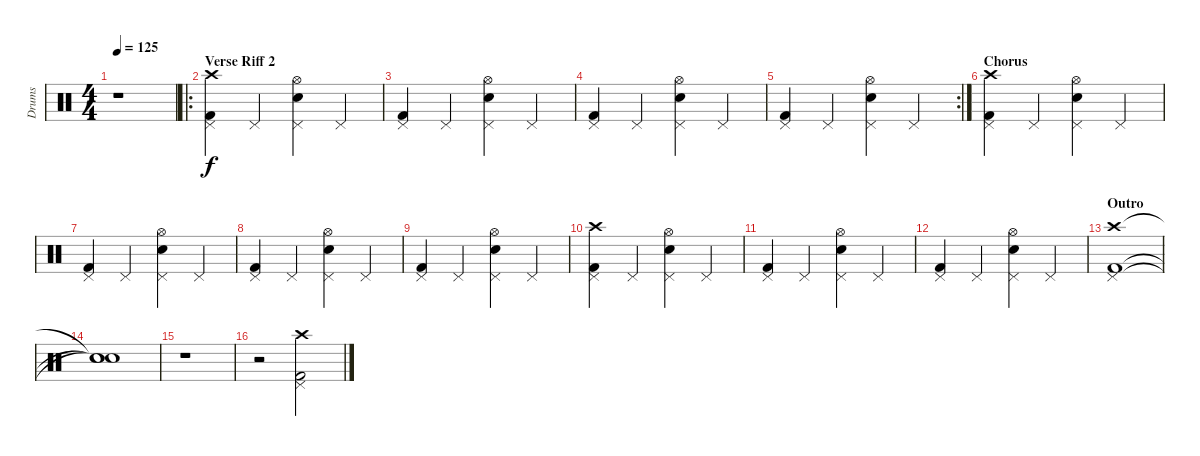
\track ("Drums" "Drums") {instrument percussion}
\staff {score}
\articulation defaults
\ts (4 4)
\tempo 125
\clef neutral
\ks c
r.1{dy f} |
\ro
\section ("" "Verse Riff 2")
("Kick (hit) 2" "Pedal Hi-Hat (hit)" "Crash high (hit)").4 "Pedal Hi-Hat (hit)".4 ("Snare (hit) 2" "Pedal Hi-Hat (hit)" "Hi-Hat (open)").4 "Pedal Hi-Hat (hit)".4 |
("Kick (hit) 2" "Pedal Hi-Hat (hit)").4 "Pedal Hi-Hat (hit)".4 ("Snare (hit) 2" "Pedal Hi-Hat (hit)" "Hi-Hat (open)").4 "Pedal Hi-Hat (hit)".4 |
("Kick (hit) 2" "Pedal Hi-Hat (hit)").4 "Pedal Hi-Hat (hit)".4 ("Snare (hit) 2" "Pedal Hi-Hat (hit)" "Hi-Hat (open)").4 "Pedal Hi-Hat (hit)".4 |
\rc 2
("Kick (hit) 2" "Pedal Hi-Hat (hit)").4 "Pedal Hi-Hat (hit)".4 ("Snare (hit) 2" "Pedal Hi-Hat (hit)" "Hi-Hat (open)").4 "Pedal Hi-Hat (hit)".4 |
\section ("" "Chorus")
("Kick (hit) 2" "Pedal Hi-Hat (hit)" "Crash high (hit)").4 "Pedal Hi-Hat (hit)".4 ("Snare (hit) 2" "Pedal Hi-Hat (hit)" "Hi-Hat (open)").4 "Pedal Hi-Hat (hit)".4 |
("Kick (hit) 2" "Pedal Hi-Hat (hit)").4 "Pedal Hi-Hat (hit)".4 ("Snare (hit) 2" "Pedal Hi-Hat (hit)" "Hi-Hat (open)").4 "Pedal Hi-Hat (hit)".4 |
("Kick (hit) 2" "Pedal Hi-Hat (hit)").4 "Pedal Hi-Hat (hit)".4 ("Snare (hit) 2" "Pedal Hi-Hat (hit)" "Hi-Hat (open)").4 "Pedal Hi-Hat (hit)".4 |
("Kick (hit) 2" "Pedal Hi-Hat (hit)").4 "Pedal Hi-Hat (hit)".4 ("Snare (hit) 2" "Pedal Hi-Hat (hit)" "Hi-Hat (open)").4 "Pedal Hi-Hat (hit)".4 |
("Kick (hit) 2" "Pedal Hi-Hat (hit)" "Crash high (hit)").4 "Pedal Hi-Hat (hit)".4 ("Snare (hit) 2" "Pedal Hi-Hat (hit)" "Hi-Hat (open)").4 "Pedal Hi-Hat (hit)".4 |
("Kick (hit) 2" "Pedal Hi-Hat (hit)").4 "Pedal Hi-Hat (hit)".4 ("Snare (hit) 2" "Pedal Hi-Hat (hit)" "Hi-Hat (open)").4 "Pedal Hi-Hat (hit)".4 |
("Kick (hit) 2" "Pedal Hi-Hat (hit)").4 "Pedal Hi-Hat (hit)".4 ("Snare (hit) 2" "Pedal Hi-Hat (hit)" "Hi-Hat (open)").4 "Pedal Hi-Hat (hit)".4 |
\section ("" "Outro")
("Kick (hit) 2" "Pedal Hi-Hat (hit)" "Crash high (hit)").1 |
("Snare (hit)"{t} "Snare (hit)"{t} "Snare (hit)"{t}).1 |
r.1 |
r.2 ("Kick (hit) 2" "Pedal Hi-Hat (hit)" "Crash high (hit)").2
